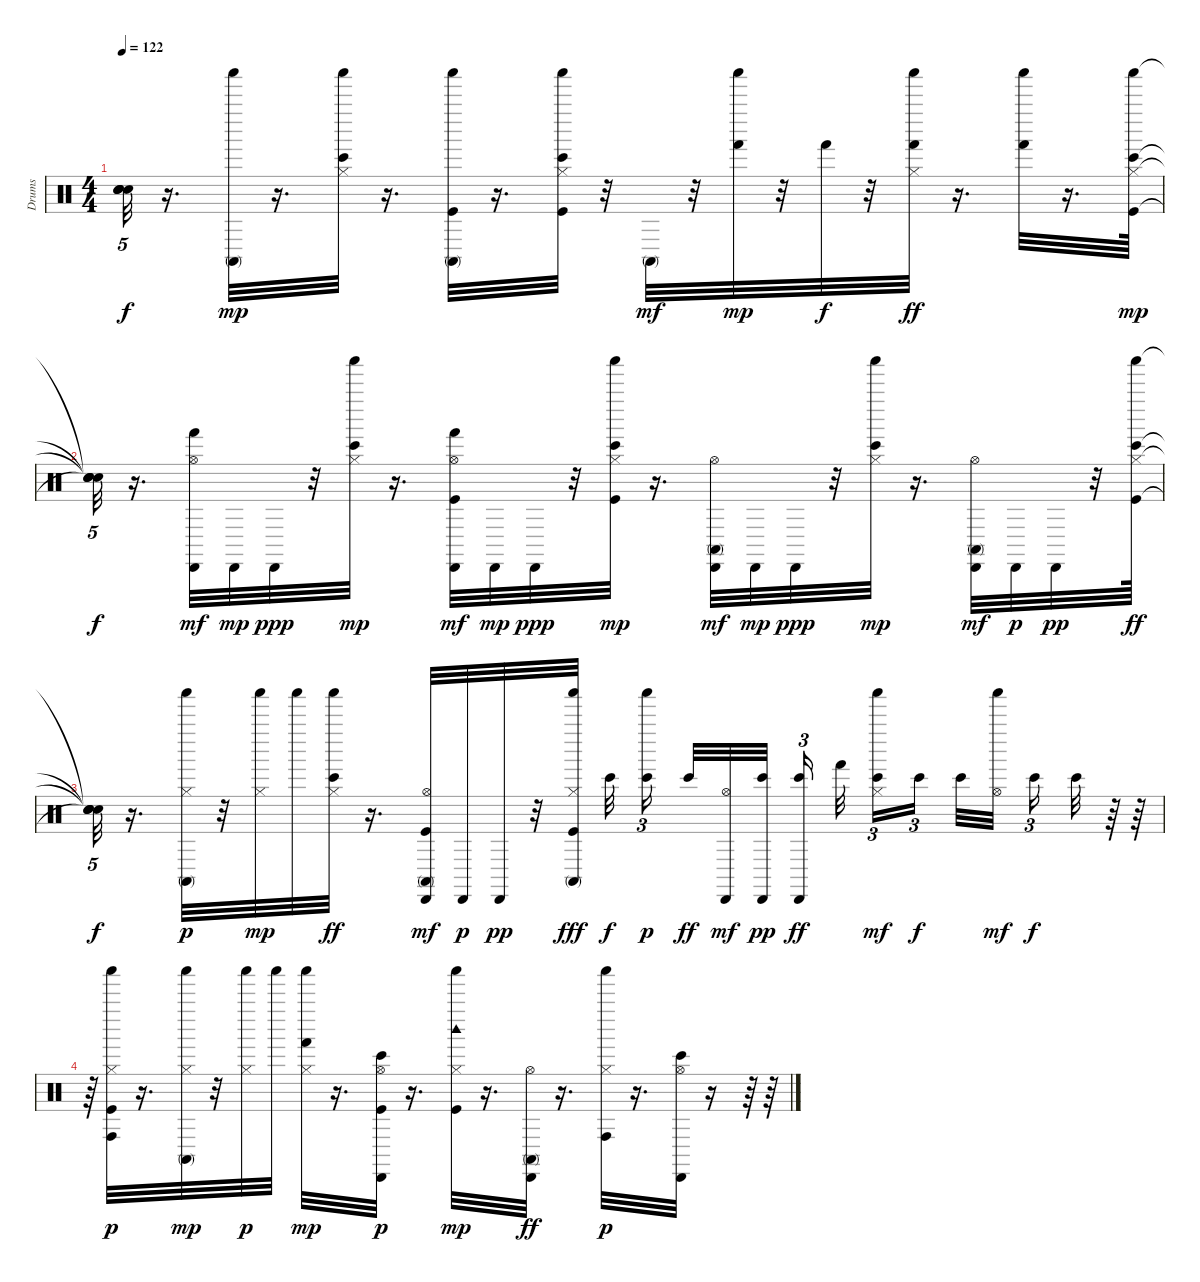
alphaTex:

\track ("Drums" "Drums") {instrument percussion}
\staff {score}
\articulation defaults
\ts (4 4)
\tempo 122
\clef neutral
\ks c
("Snare (hit)"{t} "Snare (hit)"{t} "Snare (hit)"{t} "Snare (hit)"{t}).32{tu (5 4) dy f} r.16{d} ("Conga high (mute)" "Shaker (hit)").32{dy mp} r.16{d} ("Bongo High (hit)" "Shaker (hit)" "Hi-Hat (closed)").32 r.16{d} ("Conga high (mute)" "Shaker (hit)" "Kick (hit)").32 r.16{d} ("Bongo High (hit)" "Shaker (hit)" "Kick (hit)" "Hi-Hat (closed)").32 r.32 "Conga high (mute)".32{dy mf} r.32 ("Shaker (hit)" "Hand (hit)").32{dy mp} r.32 "Hand (hit)".32{dy f} r.32 ("Hi-Hat (closed)" "Shaker (hit)" "Hand (hit)").32{dy ff} r.16{d} ("Shaker (hit)" "Hand (hit)").32 r.16{d} ("Kick (hit)" "Hi-Hat (closed)" "Bongo High (hit)" "Shaker (hit)").64{dy mp} |
("Snare (hit)"{t} "Snare (hit)"{t} "Snare (hit)"{t} "Snare (hit)"{t}).32{tu (5 4) dy f} r.16{d} ("Hi-Hat (open)" "Hand (hit)" "Cabasa (hit)").32{dy mf} "Cabasa (hit)".32{dy mp} "Cabasa (hit)".32{dy ppp} r.32 ("Shaker (hit)" "Hi-Hat (closed)" "Bongo High (hit)").32{dy mp} r.16{d} ("Kick (hit)" "Hi-Hat (open)" "Hand (hit)" "Cabasa (hit)").32{dy mf} "Cabasa (hit)".32{dy mp} "Cabasa (hit)".32{dy ppp} r.32 ("Shaker (hit)" "Kick (hit)" "Hi-Hat (closed)" "Bongo High (hit)").32{dy mp} r.16{d} ("Conga high (mute)" "Hi-Hat (open)" "Cabasa (hit)").32{dy mf} "Cabasa (hit)".32{dy mp} "Cabasa (hit)".32{dy ppp} r.32 ("Bongo High (hit)" "Shaker (hit)" "Hi-Hat (closed)").32{dy mp} r.16{d} ("Hi-Hat (open)" "Conga high (mute)" "Cabasa (hit)").32{dy mf} "Cabasa (hit)".32{dy p} "Cabasa (hit)".32{dy pp} r.32 ("Shaker (hit)" "Kick (hit)" "Hi-Hat (closed)" "Bongo High (hit)").64{dy ff} |
("Snare (hit)"{t} "Snare (hit)"{t} "Snare (hit)"{t} "Snare (hit)"{t}).32{tu (5 4) dy f} r.16{d} ("Shaker (hit)" "Hi-Hat (closed)" "Conga high (mute)").32{dy p} r.32 ("Hi-Hat (closed)" "Shaker (hit)").32{dy mp} "Shaker (hit)".32 ("Shaker (hit)" "Hi-Hat (closed)" "Bongo High (hit)").32{dy ff} r.16{d} ("Kick (hit)" "Hi-Hat (open)" "Conga high (mute)" "Cabasa (hit)").32{dy mf} "Cabasa (hit)".32{dy p} "Cabasa (hit)".32{dy pp} r.32 ("Shaker (hit)" "Kick (hit)" "Hi-Hat (closed)" "Conga high (mute)").32{dy fff} "Bongo High (hit)".32{dy f beam splitsecondary} ("Shaker (hit)" "Bongo High (hit)").16{tu (3 2) dy p beam splitsecondary} "Bongo High (hit)".32{dy ff} ("Hi-Hat (open)" "Cabasa (hit)").32{dy mf} ("Bongo High (hit)" "Cabasa (hit)").32{dy pp beam splitsecondary} ("Cabasa (hit)" "Bongo High (hit)").16{tu (3 2) dy ff} "Hand (hit)".32 ("Hi-Hat (closed)" "Shaker (hit)" "Bongo High (hit)").16{tu (3 2) dy mf} "Bongo High (hit)".16{tu (3 2) dy f beam splitsecondary} "Bongo High (hit)".32 ("Shaker (hit)" "Hi-Hat (open)").32{dy mf beam splitsecondary} "Bongo High (hit)".16{tu (3 2) dy f} "Bongo High (hit)".32 r.64 r.64 |
r.64 ("Kick (hit)" "Hi-Hat (closed)" "Conga high (hit)" "Shaker (hit)").32{dy p} r.16{d} ("Conga high (mute)" "Hi-Hat (closed)" "Shaker (hit)").32{dy mp} r.32 ("Hi-Hat (closed)" "Shaker (hit)").32{dy p} "Shaker (hit)".32 ("Hand (hit)" "Shaker (hit)" "Hi-Hat (closed)").32{dy mp} r.16{d} ("Bongo High (hit)" "Kick (hit)" "Hi-Hat (open)" "Cabasa (hit)").32{dy p} r.16{d} ("Shaker (hit)" "Kick (hit)" "Hi-Hat (closed)" "Woodblock high (hit)").32{dy mp} r.16{d} ("Hi-Hat (open)" "Cabasa (hit)" "Conga high (mute)").32{dy ff} r.16{d} ("Shaker (hit)" "Hi-Hat (closed)" "Conga high (hit)").32{dy p} r.16{d} ("Hi-Hat (open)" "Cabasa (hit)" "Bongo High (hit)").32 r.16 r.64 r.64
